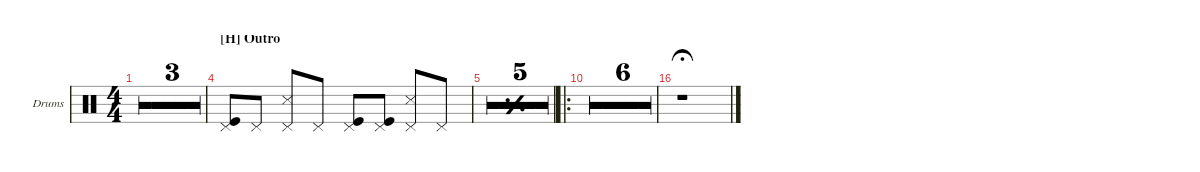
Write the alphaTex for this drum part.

\defaultSystemsLayout 4
\hideDynamics
\bracketExtendMode nobrackets
\firstSystemTrackNameOrientation horizontal
\otherSystemsTrackNameOrientation horizontal
\track ("Drums" "Drums") {multiBarRest instrument percussion}
\staff {score}
\articulation defaults
\ts (4 4)
\tempo 78
\clef neutral
\simile firstofdouble
\ks aminor
|
\simile secondofdouble
|
r.1 |
\section ("H" "Outro")
("Kick (hit)" "Pedal Hi-Hat (hit)").8 "Pedal Hi-Hat (hit)".8 ("Snare (side stick) 3" "Pedal Hi-Hat (hit)").8 "Pedal Hi-Hat (hit)".8 ("Kick (hit)" "Pedal Hi-Hat (hit)").8 ("Kick (hit)" "Pedal Hi-Hat (hit)").8 ("Snare (side stick) 3" "Pedal Hi-Hat (hit)").8 "Pedal Hi-Hat (hit)".8 |
\simile simple
|
\simile firstofdouble
|
\simile secondofdouble
|
\simile firstofdouble
|
\simile secondofdouble
|
\ro
\simile firstofdouble
|
\simile secondofdouble
|
\simile firstofdouble
|
\simile secondofdouble
|
\simile firstofdouble
|
\rc 2
\simile secondofdouble
|
\simile none
r.1{fermata (medium 0.5)}
